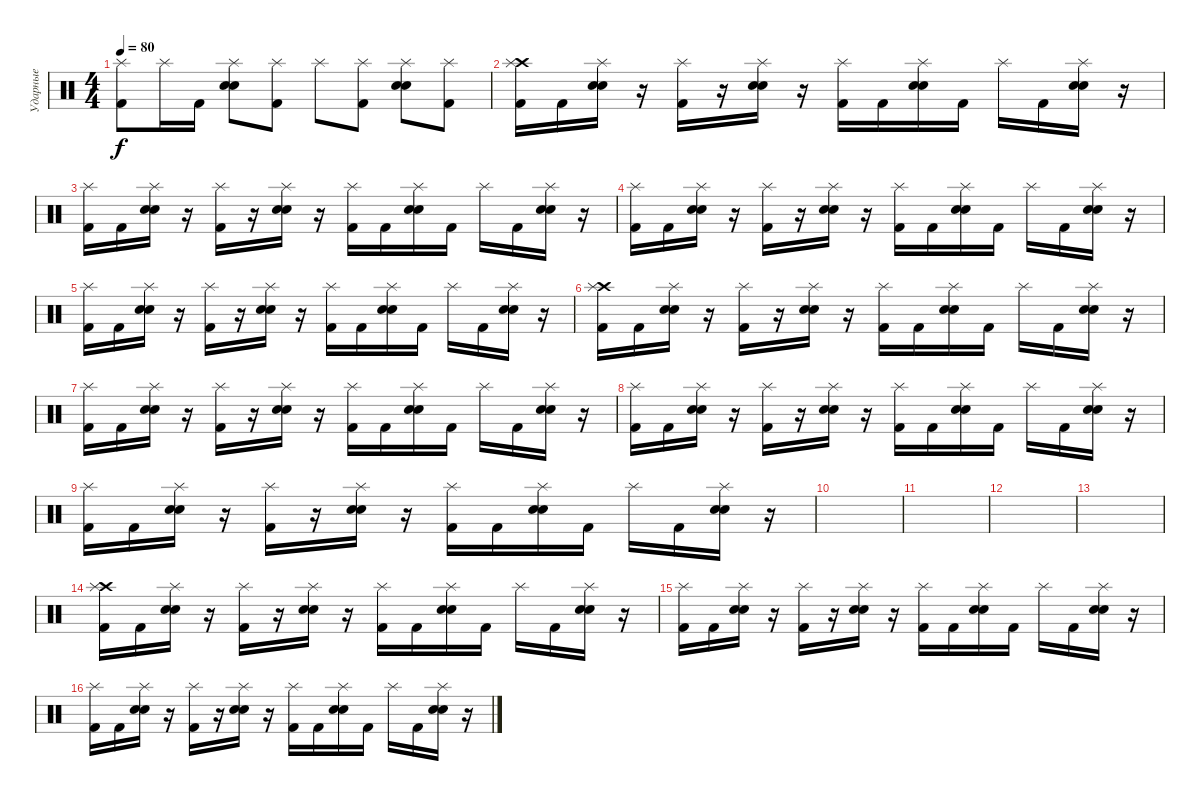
\track ("Ударные" "Ударные") {instrument percussion}
\staff {score}
\articulation defaults
\ts (4 4)
\tempo 80
\clef neutral
\ks c
("Splash (hit)" "Kick (hit) 2").8{dy f} "Splash (hit)".16 "Kick (hit) 2".16 ("Splash (hit)" "Snare (hit) 2" "Snare (hit) 2").8 ("Splash (hit)" "Kick (hit) 2").8 "Splash (hit)".8 ("Splash (hit)" "Kick (hit) 2").8 ("Splash (hit)" "Snare (hit) 2" "Snare (hit) 2").8 ("Splash (hit)" "Kick (hit) 2").8 |
("Crash high (hit)" "Splash (hit)" "Kick (hit) 2").16 "Kick (hit) 2".16 ("Splash (hit)" "Snare (hit) 2" "Snare (hit) 2").16 r.16 ("Splash (hit)" "Kick (hit) 2").16 r.16 ("Splash (hit)" "Snare (hit) 2" "Snare (hit) 2").16 r.16 ("Splash (hit)" "Kick (hit) 2").16 "Kick (hit) 2".16 ("Splash (hit)" "Snare (hit) 2" "Snare (hit) 2").16 "Kick (hit) 2".16 "Splash (hit)".16 "Kick (hit) 2".16 ("Splash (hit)" "Snare (hit) 2" "Snare (hit) 2").16 r.16 |
("Splash (hit)" "Kick (hit) 2").16 "Kick (hit) 2".16 ("Splash (hit)" "Snare (hit) 2" "Snare (hit) 2").16 r.16 ("Splash (hit)" "Kick (hit) 2").16 r.16 ("Splash (hit)" "Snare (hit) 2" "Snare (hit) 2").16 r.16 ("Splash (hit)" "Kick (hit) 2").16 "Kick (hit) 2".16 ("Splash (hit)" "Snare (hit) 2" "Snare (hit) 2").16 "Kick (hit) 2".16 "Splash (hit)".16 "Kick (hit) 2".16 ("Splash (hit)" "Snare (hit) 2" "Snare (hit) 2").16 r.16 |
("Splash (hit)" "Kick (hit) 2").16 "Kick (hit) 2".16 ("Splash (hit)" "Snare (hit) 2" "Snare (hit) 2").16 r.16 ("Splash (hit)" "Kick (hit) 2").16 r.16 ("Splash (hit)" "Snare (hit) 2" "Snare (hit) 2").16 r.16 ("Splash (hit)" "Kick (hit) 2").16 "Kick (hit) 2".16 ("Splash (hit)" "Snare (hit) 2" "Snare (hit) 2").16 "Kick (hit) 2".16 "Splash (hit)".16 "Kick (hit) 2".16 ("Splash (hit)" "Snare (hit) 2" "Snare (hit) 2").16 r.16 |
("Splash (hit)" "Kick (hit) 2").16 "Kick (hit) 2".16 ("Splash (hit)" "Snare (hit) 2" "Snare (hit) 2").16 r.16 ("Splash (hit)" "Kick (hit) 2").16 r.16 ("Splash (hit)" "Snare (hit) 2" "Snare (hit) 2").16 r.16 ("Splash (hit)" "Kick (hit) 2").16 "Kick (hit) 2".16 ("Splash (hit)" "Snare (hit) 2" "Snare (hit) 2").16 "Kick (hit) 2".16 "Splash (hit)".16 "Kick (hit) 2".16 ("Splash (hit)" "Snare (hit) 2" "Snare (hit) 2").16 r.16 |
("Crash high (hit)" "Splash (hit)" "Kick (hit) 2").16 "Kick (hit) 2".16 ("Splash (hit)" "Snare (hit) 2" "Snare (hit) 2").16 r.16 ("Splash (hit)" "Kick (hit) 2").16 r.16 ("Splash (hit)" "Snare (hit) 2" "Snare (hit) 2").16 r.16 ("Splash (hit)" "Kick (hit) 2").16 "Kick (hit) 2".16 ("Splash (hit)" "Snare (hit) 2" "Snare (hit) 2").16 "Kick (hit) 2".16 "Splash (hit)".16 "Kick (hit) 2".16 ("Splash (hit)" "Snare (hit) 2" "Snare (hit) 2").16 r.16 |
("Splash (hit)" "Kick (hit) 2").16 "Kick (hit) 2".16 ("Splash (hit)" "Snare (hit) 2" "Snare (hit) 2").16 r.16 ("Splash (hit)" "Kick (hit) 2").16 r.16 ("Splash (hit)" "Snare (hit) 2" "Snare (hit) 2").16 r.16 ("Splash (hit)" "Kick (hit) 2").16 "Kick (hit) 2".16 ("Splash (hit)" "Snare (hit) 2" "Snare (hit) 2").16 "Kick (hit) 2".16 "Splash (hit)".16 "Kick (hit) 2".16 ("Splash (hit)" "Snare (hit) 2" "Snare (hit) 2").16 r.16 |
("Splash (hit)" "Kick (hit) 2").16 "Kick (hit) 2".16 ("Splash (hit)" "Snare (hit) 2" "Snare (hit) 2").16 r.16 ("Splash (hit)" "Kick (hit) 2").16 r.16 ("Splash (hit)" "Snare (hit) 2" "Snare (hit) 2").16 r.16 ("Splash (hit)" "Kick (hit) 2").16 "Kick (hit) 2".16 ("Splash (hit)" "Snare (hit) 2" "Snare (hit) 2").16 "Kick (hit) 2".16 "Splash (hit)".16 "Kick (hit) 2".16 ("Splash (hit)" "Snare (hit) 2" "Snare (hit) 2").16 r.16 |
("Splash (hit)" "Kick (hit) 2").16 "Kick (hit) 2".16 ("Splash (hit)" "Snare (hit) 2" "Snare (hit) 2").16 r.16 ("Splash (hit)" "Kick (hit) 2").16 r.16 ("Splash (hit)" "Snare (hit) 2" "Snare (hit) 2").16 r.16 ("Splash (hit)" "Kick (hit) 2").16 "Kick (hit) 2".16 ("Splash (hit)" "Snare (hit) 2" "Snare (hit) 2").16 "Kick (hit) 2".16 "Splash (hit)".16 "Kick (hit) 2".16 ("Splash (hit)" "Snare (hit) 2" "Snare (hit) 2").16 r.16 |
|
|
|
|
("Crash high (hit)" "Splash (hit)" "Kick (hit) 2").16 "Kick (hit) 2".16 ("Splash (hit)" "Snare (hit) 2" "Snare (hit) 2").16 r.16 ("Splash (hit)" "Kick (hit) 2").16 r.16 ("Splash (hit)" "Snare (hit) 2" "Snare (hit) 2").16 r.16 ("Splash (hit)" "Kick (hit) 2").16 "Kick (hit) 2".16 ("Splash (hit)" "Snare (hit) 2" "Snare (hit) 2").16 "Kick (hit) 2".16 "Splash (hit)".16 "Kick (hit) 2".16 ("Splash (hit)" "Snare (hit) 2" "Snare (hit) 2").16 r.16 |
("Splash (hit)" "Kick (hit) 2").16 "Kick (hit) 2".16 ("Splash (hit)" "Snare (hit) 2" "Snare (hit) 2").16 r.16 ("Splash (hit)" "Kick (hit) 2").16 r.16 ("Splash (hit)" "Snare (hit) 2" "Snare (hit) 2").16 r.16 ("Splash (hit)" "Kick (hit) 2").16 "Kick (hit) 2".16 ("Splash (hit)" "Snare (hit) 2" "Snare (hit) 2").16 "Kick (hit) 2".16 "Splash (hit)".16 "Kick (hit) 2".16 ("Splash (hit)" "Snare (hit) 2" "Snare (hit) 2").16 r.16 |
("Splash (hit)" "Kick (hit) 2").16 "Kick (hit) 2".16 ("Splash (hit)" "Snare (hit) 2" "Snare (hit) 2").16 r.16 ("Splash (hit)" "Kick (hit) 2").16 r.16 ("Splash (hit)" "Snare (hit) 2" "Snare (hit) 2").16 r.16 ("Splash (hit)" "Kick (hit) 2").16 "Kick (hit) 2".16 ("Splash (hit)" "Snare (hit) 2" "Snare (hit) 2").16 "Kick (hit) 2".16 "Splash (hit)".16 "Kick (hit) 2".16 ("Splash (hit)" "Snare (hit) 2" "Snare (hit) 2").16 r.16
